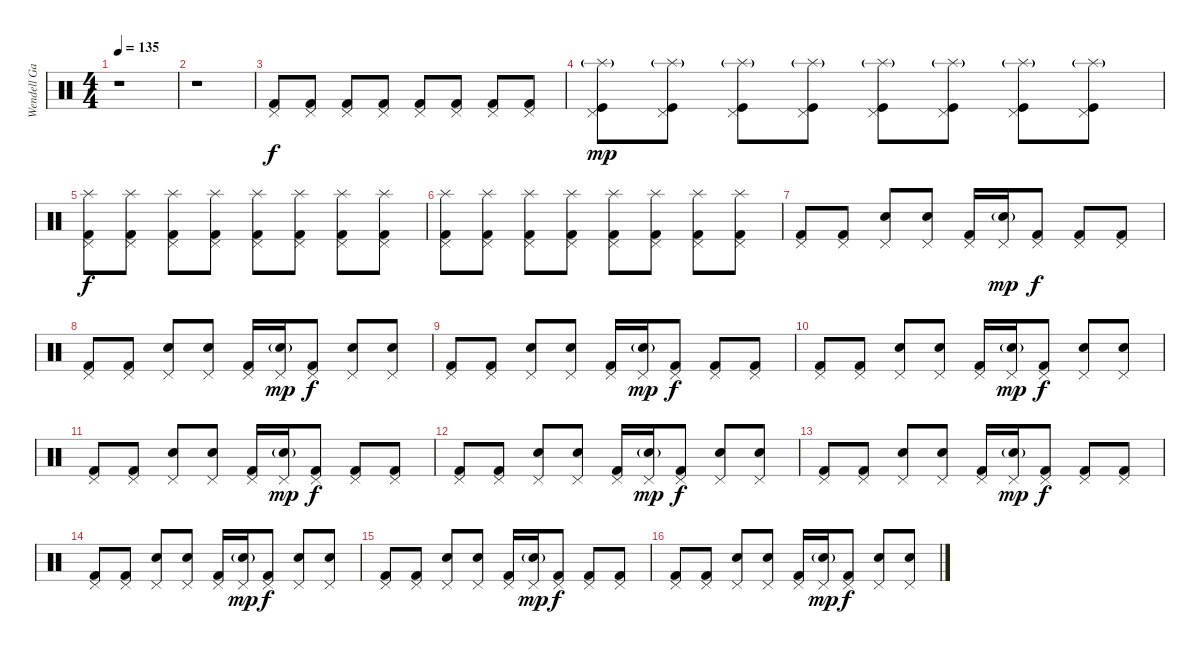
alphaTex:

\track ("Wendell Garcia" "Wendell Ga") {instrument percussion}
\staff {score}
\articulation defaults
\ts (4 4)
\tempo 135
\clef neutral
\ks c
r.1{dy f} |
r.1 |
("Pedal Hi-Hat (hit)" "Kick (hit) 2").8 ("Pedal Hi-Hat (hit)" "Kick (hit) 2").8 ("Pedal Hi-Hat (hit)" "Kick (hit) 2").8 ("Pedal Hi-Hat (hit)" "Kick (hit) 2").8 ("Pedal Hi-Hat (hit)" "Kick (hit) 2").8 ("Pedal Hi-Hat (hit)" "Kick (hit) 2").8 ("Pedal Hi-Hat (hit)" "Kick (hit) 2").8 ("Pedal Hi-Hat (hit)" "Kick (hit) 2").8 |
("Pedal Hi-Hat (hit)" "Kick (hit)" "Splash (hit)"{g}).8{dy mp} ("Pedal Hi-Hat (hit)" "Kick (hit)" "Splash (hit)"{g}).8 ("Pedal Hi-Hat (hit)" "Kick (hit)" "Splash (hit)"{g}).8 ("Pedal Hi-Hat (hit)" "Kick (hit)" "Splash (hit)"{g}).8 ("Pedal Hi-Hat (hit)" "Kick (hit)" "Splash (hit)"{g}).8 ("Pedal Hi-Hat (hit)" "Kick (hit)" "Splash (hit)"{g}).8 ("Pedal Hi-Hat (hit)" "Kick (hit)" "Splash (hit)"{g}).8 ("Pedal Hi-Hat (hit)" "Kick (hit)" "Splash (hit)"{g}).8 |
("Pedal Hi-Hat (hit)" "Kick (hit) 2" "Splash (hit)").8{dy f} ("Pedal Hi-Hat (hit)" "Kick (hit) 2" "Splash (hit)").8 ("Pedal Hi-Hat (hit)" "Kick (hit) 2" "Splash (hit)").8 ("Pedal Hi-Hat (hit)" "Kick (hit) 2" "Splash (hit)").8 ("Pedal Hi-Hat (hit)" "Kick (hit) 2" "Splash (hit)").8 ("Pedal Hi-Hat (hit)" "Kick (hit) 2" "Splash (hit)").8 ("Pedal Hi-Hat (hit)" "Kick (hit) 2" "Splash (hit)").8 ("Pedal Hi-Hat (hit)" "Kick (hit) 2" "Splash (hit)").8 |
("Pedal Hi-Hat (hit)" "Kick (hit) 2" "Splash (hit)").8 ("Pedal Hi-Hat (hit)" "Kick (hit) 2" "Splash (hit)").8 ("Pedal Hi-Hat (hit)" "Kick (hit) 2" "Splash (hit)").8 ("Pedal Hi-Hat (hit)" "Kick (hit) 2" "Splash (hit)").8 ("Pedal Hi-Hat (hit)" "Kick (hit) 2" "Splash (hit)").8 ("Pedal Hi-Hat (hit)" "Kick (hit) 2" "Splash (hit)").8 ("Pedal Hi-Hat (hit)" "Kick (hit) 2" "Splash (hit)").8 ("Pedal Hi-Hat (hit)" "Kick (hit) 2" "Splash (hit)").8 |
("Pedal Hi-Hat (hit)" "Kick (hit) 2").8 ("Pedal Hi-Hat (hit)" "Kick (hit) 2").8 ("Pedal Hi-Hat (hit)" "Electric Snare (hit)").8 ("Pedal Hi-Hat (hit)" "Electric Snare (hit)").8 ("Pedal Hi-Hat (hit)" "Kick (hit) 2").16 ("Pedal Hi-Hat (hit)" "Electric Snare (hit)"{g}).16{dy mp} ("Pedal Hi-Hat (hit)" "Kick (hit) 2").8{dy f} ("Pedal Hi-Hat (hit)" "Kick (hit) 2").8 ("Pedal Hi-Hat (hit)" "Kick (hit) 2").8 |
("Pedal Hi-Hat (hit)" "Kick (hit) 2").8 ("Pedal Hi-Hat (hit)" "Kick (hit) 2").8 ("Pedal Hi-Hat (hit)" "Electric Snare (hit)").8 ("Pedal Hi-Hat (hit)" "Electric Snare (hit)").8 ("Pedal Hi-Hat (hit)" "Kick (hit) 2").16 ("Pedal Hi-Hat (hit)" "Electric Snare (hit)"{g}).16{dy mp} ("Pedal Hi-Hat (hit)" "Kick (hit) 2").8{dy f} ("Pedal Hi-Hat (hit)" "Electric Snare (hit)").8 ("Pedal Hi-Hat (hit)" "Electric Snare (hit)").8 |
("Pedal Hi-Hat (hit)" "Kick (hit) 2").8 ("Pedal Hi-Hat (hit)" "Kick (hit) 2").8 ("Pedal Hi-Hat (hit)" "Electric Snare (hit)").8 ("Pedal Hi-Hat (hit)" "Electric Snare (hit)").8 ("Pedal Hi-Hat (hit)" "Kick (hit) 2").16 ("Pedal Hi-Hat (hit)" "Electric Snare (hit)"{g}).16{dy mp} ("Pedal Hi-Hat (hit)" "Kick (hit) 2").8{dy f} ("Pedal Hi-Hat (hit)" "Kick (hit) 2").8 ("Pedal Hi-Hat (hit)" "Kick (hit) 2").8 |
("Pedal Hi-Hat (hit)" "Kick (hit) 2").8 ("Pedal Hi-Hat (hit)" "Kick (hit) 2").8 ("Pedal Hi-Hat (hit)" "Electric Snare (hit)").8 ("Pedal Hi-Hat (hit)" "Electric Snare (hit)").8 ("Pedal Hi-Hat (hit)" "Kick (hit) 2").16 ("Pedal Hi-Hat (hit)" "Electric Snare (hit)"{g}).16{dy mp} ("Pedal Hi-Hat (hit)" "Kick (hit) 2").8{dy f} ("Pedal Hi-Hat (hit)" "Electric Snare (hit)").8 ("Pedal Hi-Hat (hit)" "Electric Snare (hit)").8 |
("Pedal Hi-Hat (hit)" "Kick (hit) 2").8 ("Pedal Hi-Hat (hit)" "Kick (hit) 2").8 ("Pedal Hi-Hat (hit)" "Electric Snare (hit)").8 ("Pedal Hi-Hat (hit)" "Electric Snare (hit)").8 ("Pedal Hi-Hat (hit)" "Kick (hit) 2").16 ("Pedal Hi-Hat (hit)" "Electric Snare (hit)"{g}).16{dy mp} ("Pedal Hi-Hat (hit)" "Kick (hit) 2").8{dy f} ("Pedal Hi-Hat (hit)" "Kick (hit) 2").8 ("Pedal Hi-Hat (hit)" "Kick (hit) 2").8 |
("Pedal Hi-Hat (hit)" "Kick (hit) 2").8 ("Pedal Hi-Hat (hit)" "Kick (hit) 2").8 ("Pedal Hi-Hat (hit)" "Electric Snare (hit)").8 ("Pedal Hi-Hat (hit)" "Electric Snare (hit)").8 ("Pedal Hi-Hat (hit)" "Kick (hit) 2").16 ("Pedal Hi-Hat (hit)" "Electric Snare (hit)"{g}).16{dy mp} ("Pedal Hi-Hat (hit)" "Kick (hit) 2").8{dy f} ("Pedal Hi-Hat (hit)" "Electric Snare (hit)").8 ("Pedal Hi-Hat (hit)" "Electric Snare (hit)").8 |
("Pedal Hi-Hat (hit)" "Kick (hit) 2").8 ("Pedal Hi-Hat (hit)" "Kick (hit) 2").8 ("Pedal Hi-Hat (hit)" "Electric Snare (hit)").8 ("Pedal Hi-Hat (hit)" "Electric Snare (hit)").8 ("Pedal Hi-Hat (hit)" "Kick (hit) 2").16 ("Pedal Hi-Hat (hit)" "Electric Snare (hit)"{g}).16{dy mp} ("Pedal Hi-Hat (hit)" "Kick (hit) 2").8{dy f} ("Pedal Hi-Hat (hit)" "Kick (hit) 2").8 ("Pedal Hi-Hat (hit)" "Kick (hit) 2").8 |
("Pedal Hi-Hat (hit)" "Kick (hit) 2").8 ("Pedal Hi-Hat (hit)" "Kick (hit) 2").8 ("Pedal Hi-Hat (hit)" "Electric Snare (hit)").8 ("Pedal Hi-Hat (hit)" "Electric Snare (hit)").8 ("Pedal Hi-Hat (hit)" "Kick (hit) 2").16 ("Pedal Hi-Hat (hit)" "Electric Snare (hit)"{g}).16{dy mp} ("Pedal Hi-Hat (hit)" "Kick (hit) 2").8{dy f} ("Pedal Hi-Hat (hit)" "Electric Snare (hit)").8 ("Pedal Hi-Hat (hit)" "Electric Snare (hit)").8 |
("Pedal Hi-Hat (hit)" "Kick (hit) 2").8 ("Pedal Hi-Hat (hit)" "Kick (hit) 2").8 ("Pedal Hi-Hat (hit)" "Electric Snare (hit)").8 ("Pedal Hi-Hat (hit)" "Electric Snare (hit)").8 ("Pedal Hi-Hat (hit)" "Kick (hit) 2").16 ("Pedal Hi-Hat (hit)" "Electric Snare (hit)"{g}).16{dy mp} ("Pedal Hi-Hat (hit)" "Kick (hit) 2").8{dy f} ("Pedal Hi-Hat (hit)" "Kick (hit) 2").8 ("Pedal Hi-Hat (hit)" "Kick (hit) 2").8 |
("Pedal Hi-Hat (hit)" "Kick (hit) 2").8 ("Pedal Hi-Hat (hit)" "Kick (hit) 2").8 ("Pedal Hi-Hat (hit)" "Electric Snare (hit)").8 ("Pedal Hi-Hat (hit)" "Electric Snare (hit)").8 ("Pedal Hi-Hat (hit)" "Kick (hit) 2").16 ("Pedal Hi-Hat (hit)" "Electric Snare (hit)"{g}).16{dy mp} ("Pedal Hi-Hat (hit)" "Kick (hit) 2").8{dy f} ("Pedal Hi-Hat (hit)" "Electric Snare (hit)").8 ("Pedal Hi-Hat (hit)" "Electric Snare (hit)").8
